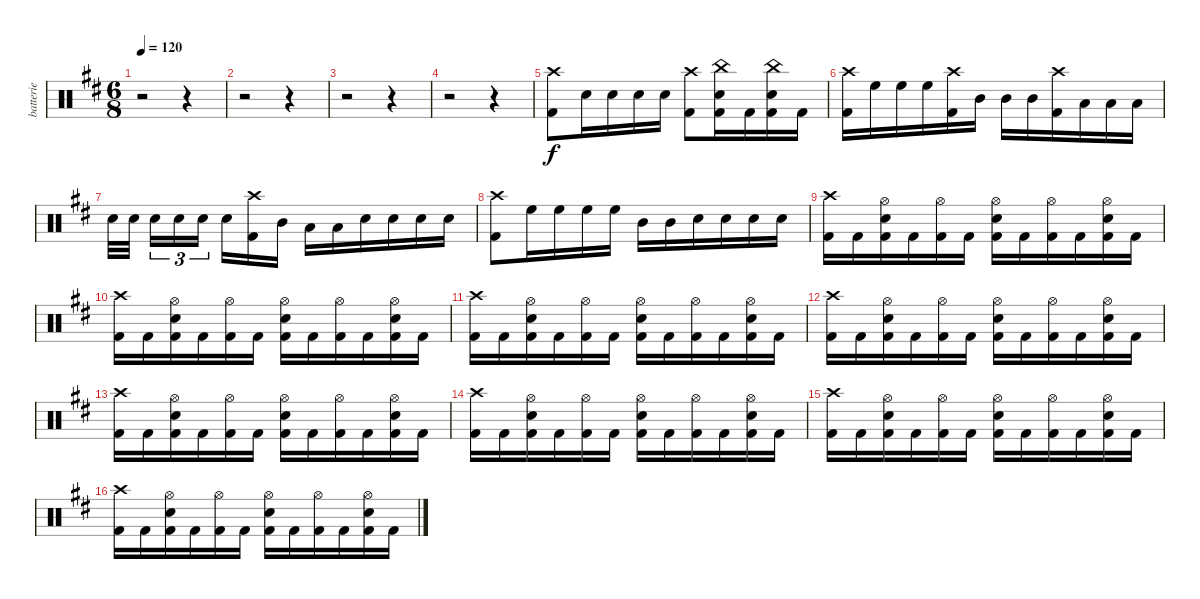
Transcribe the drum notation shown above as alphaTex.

\track ("batterie" "batterie") {instrument percussion}
\staff {score}
\articulation defaults
\ts (6 8)
\tempo 120
\clef neutral
\ks bminor
r.2{dy f} r.4 |
r.2 r.4 |
r.2 r.4 |
r.2 r.4 |
("Crash high (hit)" "Kick (hit) 2").8 "Snare (hit) 2".16 "Snare (hit) 2".16 "Snare (hit) 2".16 "Snare (hit) 2".16 ("Crash high (hit)" "Kick (hit) 2").8 ("China (hit)" "Snare (hit) 2" "Kick (hit) 2").16 "Kick (hit) 2".16 ("China (hit)" "Snare (hit) 2" "Kick (hit) 2").16 "Kick (hit) 2".16 |
("Crash high (hit)" "Kick (hit) 2").16 "High Floor Tom (hit)".16 "High Floor Tom (hit)".16 "High Floor Tom (hit)".16 ("Crash high (hit)" "Kick (hit) 2").16 "Mid Tom (hit)".16 "Mid Tom (hit)".16 "Mid Tom (hit)".16 ("Crash high (hit)" "Kick (hit) 2").16 "Low Tom (hit)".16 "Low Tom (hit)".16 "Low Tom (hit)".16 |
"Snare (hit) 2".32 "Snare (hit) 2".32 "Snare (hit) 2".16{tu (3 2)} "Snare (hit) 2".16{tu (3 2)} "Snare (hit) 2".16{tu (3 2)} "Snare (hit) 2".16 ("Crash high (hit)" "Kick (hit) 2").16 "Mid Tom (hit)".16 "Low Tom (hit)".16 "Low Tom (hit)".16 "Snare (hit) 2".16 "Snare (hit) 2".16 "Snare (hit) 2".16 "Snare (hit) 2".16 |
("Crash high (hit)" "Kick (hit) 2").8 "High Floor Tom (hit)".16 "High Floor Tom (hit)".16 "High Floor Tom (hit)".16 "High Floor Tom (hit)".16 "Mid Tom (hit)".16 "Mid Tom (hit)".16 "Snare (hit) 2".16 "Snare (hit) 2".16 "Snare (hit) 2".16 "Snare (hit) 2".16 |
("Crash high (hit)" "Kick (hit) 2").16 "Kick (hit) 2".16 ("Hi-Hat (open)" "Snare (hit) 2" "Kick (hit) 2").16 "Kick (hit) 2".16 ("Hi-Hat (open)" "Kick (hit) 2").16 "Kick (hit) 2".16 ("Hi-Hat (open)" "Snare (hit) 2" "Kick (hit) 2").16 "Kick (hit) 2".16 ("Hi-Hat (open)" "Kick (hit) 2").16 "Kick (hit) 2".16 ("Hi-Hat (open)" "Snare (hit) 2" "Kick (hit) 2").16 "Kick (hit) 2".16 |
("Crash high (hit)" "Kick (hit) 2").16 "Kick (hit) 2".16 ("Hi-Hat (open)" "Snare (hit) 2" "Kick (hit) 2").16 "Kick (hit) 2".16 ("Hi-Hat (open)" "Kick (hit) 2").16 "Kick (hit) 2".16 ("Hi-Hat (open)" "Snare (hit) 2" "Kick (hit) 2").16 "Kick (hit) 2".16 ("Hi-Hat (open)" "Kick (hit) 2").16 "Kick (hit) 2".16 ("Hi-Hat (open)" "Snare (hit) 2" "Kick (hit) 2").16 "Kick (hit) 2".16 |
("Crash high (hit)" "Kick (hit) 2").16 "Kick (hit) 2".16 ("Hi-Hat (open)" "Snare (hit) 2" "Kick (hit) 2").16 "Kick (hit) 2".16 ("Hi-Hat (open)" "Kick (hit) 2").16 "Kick (hit) 2".16 ("Hi-Hat (open)" "Snare (hit) 2" "Kick (hit) 2").16 "Kick (hit) 2".16 ("Hi-Hat (open)" "Kick (hit) 2").16 "Kick (hit) 2".16 ("Hi-Hat (open)" "Snare (hit) 2" "Kick (hit) 2").16 "Kick (hit) 2".16 |
("Crash high (hit)" "Kick (hit) 2").16 "Kick (hit) 2".16 ("Hi-Hat (open)" "Snare (hit) 2" "Kick (hit) 2").16 "Kick (hit) 2".16 ("Hi-Hat (open)" "Kick (hit) 2").16 "Kick (hit) 2".16 ("Hi-Hat (open)" "Snare (hit) 2" "Kick (hit) 2").16 "Kick (hit) 2".16 ("Hi-Hat (open)" "Kick (hit) 2").16 "Kick (hit) 2".16 ("Hi-Hat (open)" "Snare (hit) 2" "Kick (hit) 2").16 "Kick (hit) 2".16 |
("Crash high (hit)" "Kick (hit) 2").16 "Kick (hit) 2".16 ("Hi-Hat (open)" "Snare (hit) 2" "Kick (hit) 2").16 "Kick (hit) 2".16 ("Hi-Hat (open)" "Kick (hit) 2").16 "Kick (hit) 2".16 ("Hi-Hat (open)" "Snare (hit) 2" "Kick (hit) 2").16 "Kick (hit) 2".16 ("Hi-Hat (open)" "Kick (hit) 2").16 "Kick (hit) 2".16 ("Hi-Hat (open)" "Snare (hit) 2" "Kick (hit) 2").16 "Kick (hit) 2".16 |
("Crash high (hit)" "Kick (hit) 2").16 "Kick (hit) 2".16 ("Hi-Hat (open)" "Snare (hit) 2" "Kick (hit) 2").16 "Kick (hit) 2".16 ("Hi-Hat (open)" "Kick (hit) 2").16 "Kick (hit) 2".16 ("Hi-Hat (open)" "Snare (hit) 2" "Kick (hit) 2").16 "Kick (hit) 2".16 ("Hi-Hat (open)" "Kick (hit) 2").16 "Kick (hit) 2".16 ("Hi-Hat (open)" "Snare (hit) 2" "Kick (hit) 2").16 "Kick (hit) 2".16 |
("Crash high (hit)" "Kick (hit) 2").16 "Kick (hit) 2".16 ("Hi-Hat (open)" "Snare (hit) 2" "Kick (hit) 2").16 "Kick (hit) 2".16 ("Hi-Hat (open)" "Kick (hit) 2").16 "Kick (hit) 2".16 ("Hi-Hat (open)" "Snare (hit) 2" "Kick (hit) 2").16 "Kick (hit) 2".16 ("Hi-Hat (open)" "Kick (hit) 2").16 "Kick (hit) 2".16 ("Hi-Hat (open)" "Snare (hit) 2" "Kick (hit) 2").16 "Kick (hit) 2".16 |
("Crash high (hit)" "Kick (hit) 2").16 "Kick (hit) 2".16 ("Hi-Hat (open)" "Snare (hit) 2" "Kick (hit) 2").16 "Kick (hit) 2".16 ("Hi-Hat (open)" "Kick (hit) 2").16 "Kick (hit) 2".16 ("Hi-Hat (open)" "Snare (hit) 2" "Kick (hit) 2").16 "Kick (hit) 2".16 ("Hi-Hat (open)" "Kick (hit) 2").16 "Kick (hit) 2".16 ("Hi-Hat (open)" "Snare (hit) 2" "Kick (hit) 2").16 "Kick (hit) 2".16
